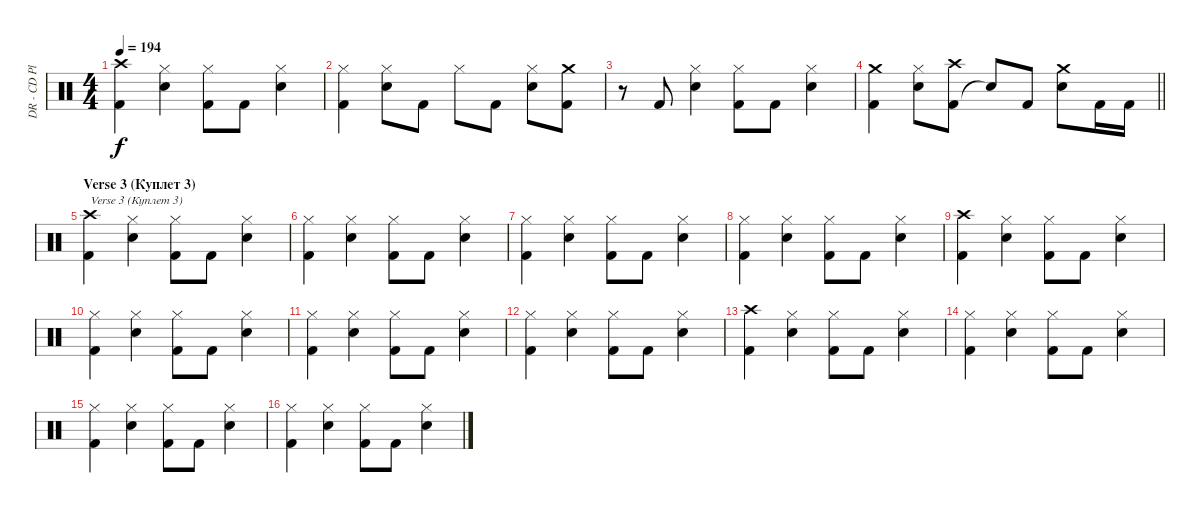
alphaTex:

\track ("DR - CD Player" "DR - CD Pl") {instrument percussion}
\staff {score}
\articulation defaults
\ts (4 4)
\tempo 194
\clef neutral
\ks c
("Kick (hit) 2" "Crash high (hit)").4{dy f} ("Snare (hit) 2" "Hi-Hat (closed)").4 ("Kick (hit) 2" "Hi-Hat (closed)").8 "Kick (hit) 2".8 ("Snare (hit) 2" "Hi-Hat (closed)").4 |
("Kick (hit) 2" "Hi-Hat (closed)").4 ("Snare (hit) 2" "Hi-Hat (closed)").8 "Kick (hit) 2".8 "Hi-Hat (closed)".8 "Kick (hit) 2".8 ("Snare (hit) 2" "Hi-Hat (closed)").8 ("Kick (hit) 2" "Crash medium (hit)").8 |
r.8 "Kick (hit) 2".8 ("Snare (hit) 2" "Hi-Hat (closed)").4 ("Kick (hit) 2" "Hi-Hat (closed)").8 "Kick (hit) 2".8 ("Snare (hit) 2" "Hi-Hat (closed)").4 |
\barLineRight lightlight
("Kick (hit) 2" "Crash medium (hit)").4 ("Snare (hit) 2" "Hi-Hat (closed)").8 ("Kick (hit) 2" "Crash high (hit)").8 "Snare (hit)"{t}.8 "Kick (hit) 2".8 ("Snare (hit) 2" "Crash medium (hit)").8 "Kick (hit) 2".16 "Kick (hit) 2".16 |
\section ("" "Verse 3 (Куплет 3)")
("Kick (hit) 2" "Crash high (hit)").4{txt "Verse 3 (Куплет 3)"} ("Snare (hit) 2" "Hi-Hat (closed)").4 ("Kick (hit) 2" "Hi-Hat (closed)").8 "Kick (hit) 2".8 ("Snare (hit) 2" "Hi-Hat (closed)").4 |
("Kick (hit) 2" "Hi-Hat (closed)").4 ("Snare (hit) 2" "Hi-Hat (closed)").4 ("Kick (hit) 2" "Hi-Hat (closed)").8 "Kick (hit) 2".8 ("Snare (hit) 2" "Hi-Hat (closed)").4 |
("Kick (hit) 2" "Hi-Hat (closed)").4 ("Snare (hit) 2" "Hi-Hat (closed)").4 ("Kick (hit) 2" "Hi-Hat (closed)").8 "Kick (hit) 2".8 ("Snare (hit) 2" "Hi-Hat (closed)").4 |
("Kick (hit) 2" "Hi-Hat (closed)").4 ("Snare (hit) 2" "Hi-Hat (closed)").4 ("Kick (hit) 2" "Hi-Hat (closed)").8 "Kick (hit) 2".8 ("Snare (hit) 2" "Hi-Hat (closed)").4 |
("Kick (hit) 2" "Crash high (hit)").4 ("Snare (hit) 2" "Hi-Hat (closed)").4 ("Kick (hit) 2" "Hi-Hat (closed)").8 "Kick (hit) 2".8 ("Snare (hit) 2" "Hi-Hat (closed)").4 |
("Kick (hit) 2" "Hi-Hat (closed)").4 ("Snare (hit) 2" "Hi-Hat (closed)").4 ("Kick (hit) 2" "Hi-Hat (closed)").8 "Kick (hit) 2".8 ("Snare (hit) 2" "Hi-Hat (closed)").4 |
("Kick (hit) 2" "Hi-Hat (closed)").4 ("Snare (hit) 2" "Hi-Hat (closed)").4 ("Kick (hit) 2" "Hi-Hat (closed)").8 "Kick (hit) 2".8 ("Snare (hit) 2" "Hi-Hat (closed)").4 |
("Kick (hit) 2" "Hi-Hat (closed)").4 ("Snare (hit) 2" "Hi-Hat (closed)").4 ("Kick (hit) 2" "Hi-Hat (closed)").8 "Kick (hit) 2".8 ("Snare (hit) 2" "Hi-Hat (closed)").4 |
("Kick (hit) 2" "Crash high (hit)").4 ("Snare (hit) 2" "Hi-Hat (closed)").4 ("Kick (hit) 2" "Hi-Hat (closed)").8 "Kick (hit) 2".8 ("Snare (hit) 2" "Hi-Hat (closed)").4 |
("Kick (hit) 2" "Hi-Hat (closed)").4 ("Snare (hit) 2" "Hi-Hat (closed)").4 ("Kick (hit) 2" "Hi-Hat (closed)").8 "Kick (hit) 2".8 ("Snare (hit) 2" "Hi-Hat (closed)").4 |
("Kick (hit) 2" "Hi-Hat (closed)").4 ("Snare (hit) 2" "Hi-Hat (closed)").4 ("Kick (hit) 2" "Hi-Hat (closed)").8 "Kick (hit) 2".8 ("Snare (hit) 2" "Hi-Hat (closed)").4 |
("Kick (hit) 2" "Hi-Hat (closed)").4 ("Snare (hit) 2" "Hi-Hat (closed)").4 ("Kick (hit) 2" "Hi-Hat (closed)").8 "Kick (hit) 2".8 ("Snare (hit) 2" "Hi-Hat (closed)").4
